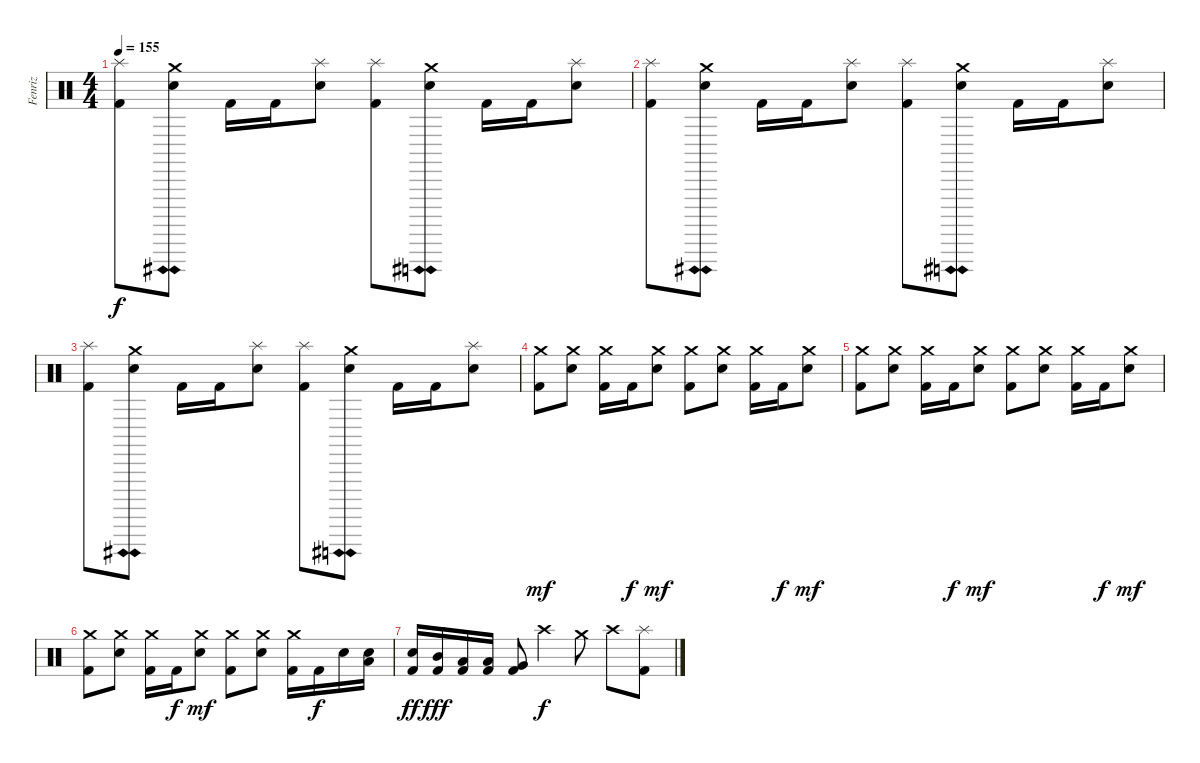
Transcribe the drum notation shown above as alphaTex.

\track ("Fenriz" "Fenriz") {instrument percussion}
\staff {score}
\articulation defaults
\ts (4 4)
\tempo 155
\clef neutral
\ks c
("Kick (hit) 2" "Splash (hit)").8{dy f} ("Electric Snare (hit)"{ah 12} "Crash medium (hit)"{ah 12}).8 "Kick (hit) 2".16 "Kick (hit) 2".16 ("Electric Snare (hit)" "Splash (hit)").8 ("Kick (hit) 2" "Splash (hit)").8 ("Electric Snare (hit)"{ah 12} "Crash medium (hit)"{ah 12}).8 "Kick (hit) 2".16 "Kick (hit) 2".16 ("Electric Snare (hit)" "Splash (hit)").8 |
("Kick (hit) 2" "Splash (hit)").8 ("Electric Snare (hit)"{ah 12} "Crash medium (hit)"{ah 12}).8 "Kick (hit) 2".16 "Kick (hit) 2".16 ("Electric Snare (hit)" "Splash (hit)").8 ("Kick (hit) 2" "Splash (hit)").8 ("Electric Snare (hit)"{ah 12} "Crash medium (hit)"{ah 12}).8 "Kick (hit) 2".16 "Kick (hit) 2".16 ("Electric Snare (hit)" "Splash (hit)").8 |
("Kick (hit) 2" "Splash (hit)").8 ("Electric Snare (hit)"{ah 12} "Crash medium (hit)"{ah 12}).8 "Kick (hit) 2".16 "Kick (hit) 2".16 ("Electric Snare (hit)" "Splash (hit)").8 ("Kick (hit) 2" "Splash (hit)").8 ("Electric Snare (hit)"{ah 12} "Crash medium (hit)"{ah 12}).8 "Kick (hit) 2".16 "Kick (hit) 2".16 ("Electric Snare (hit)" "Splash (hit)").8 |
("Kick (hit) 2" "Crash medium (hit)").8{dy mf} ("Electric Snare (hit)" "Crash medium (hit)").8 ("Kick (hit) 2" "Crash medium (hit)").16 "Kick (hit) 2".16{dy f} ("Electric Snare (hit)" "Crash medium (hit)").8{dy mf} ("Kick (hit) 2" "Crash medium (hit)").8 ("Electric Snare (hit)" "Crash medium (hit)").8 ("Kick (hit) 2" "Crash medium (hit)").16 "Kick (hit) 2".16{dy f} ("Electric Snare (hit)" "Crash medium (hit)").8{dy mf} |
("Kick (hit) 2" "Crash medium (hit)").8 ("Electric Snare (hit)" "Crash medium (hit)").8 ("Kick (hit) 2" "Crash medium (hit)").16 "Kick (hit) 2".16{dy f} ("Electric Snare (hit)" "Crash medium (hit)").8{dy mf} ("Kick (hit) 2" "Crash medium (hit)").8 ("Electric Snare (hit)" "Crash medium (hit)").8 ("Kick (hit) 2" "Crash medium (hit)").16 "Kick (hit) 2".16{dy f} ("Electric Snare (hit)" "Crash medium (hit)").8{dy mf} |
("Kick (hit) 2" "Crash medium (hit)").8 ("Electric Snare (hit)" "Crash medium (hit)").8 ("Kick (hit) 2" "Crash medium (hit)").16 "Kick (hit) 2".16{dy f} ("Electric Snare (hit)" "Crash medium (hit)").8{dy mf} ("Kick (hit) 2" "Crash medium (hit)").8 ("Electric Snare (hit)" "Crash medium (hit)").8 ("Kick (hit) 2" "Crash medium (hit)").16 "Kick (hit) 2".16{dy f} "Electric Snare (hit)".16 ("Electric Snare (hit)" "Low Tom (hit)").16 |
("Kick (hit) 2" "Electric Snare (hit)").16{dy ff} ("Kick (hit) 2" "Mid Tom (hit)").16{dy fff} ("Kick (hit) 2" "Low Tom (hit)").16 ("Kick (hit) 2" "Low Tom (hit)").16 ("Kick (hit) 2" "Very Low Tom (hit)").8 "Crash high (hit)".4{dy f} "Crash medium (hit)".8 "Crash high (hit)".8 ("Kick (hit) 2" "Splash (hit)").8
